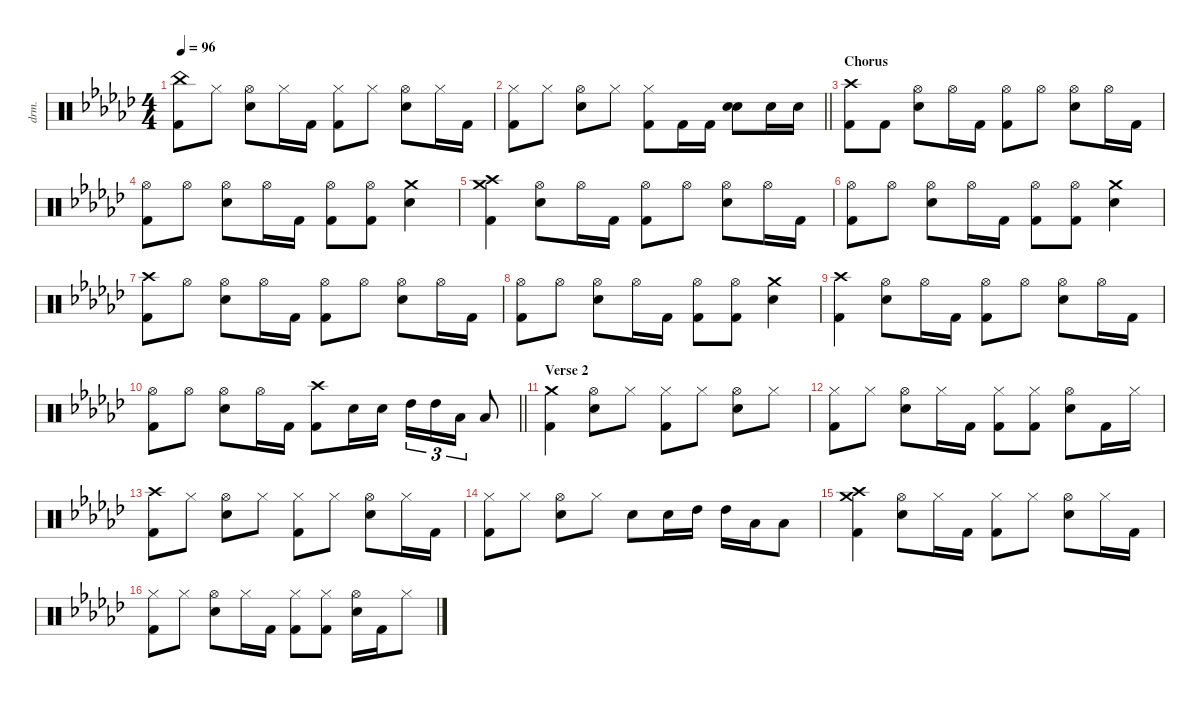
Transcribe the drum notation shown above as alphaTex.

\defaultSystemsLayout 4
\hideDynamics
\bracketExtendMode nobrackets
\otherSystemsTrackNameOrientation horizontal
\track ("Drums (Alex Van Halen)" "drm.") {instrument percussion}
\staff {score}
\articulation defaults
\ts (4 4)
\tempo 96
\clef neutral
\ks ebminor
("China (hit)"{acc forcenatural} "Kick (hit) 2"{acc forcenatural}).8{dy fff beam Down} "Hi-Hat (closed)"{acc forcenatural}.8{dy pp beam Down} ("Hi-Hat (open)"{acc forcenatural} "Snare (hit) 2"{acc forcenatural}).8{dy fff beam Down} "Hi-Hat (closed)"{acc forcenatural}.16{dy mp beam Down} "Kick (hit) 2"{acc forcenatural}.16{dy fff beam Down} ("Hi-Hat (closed)"{acc forcenatural} "Kick (hit) 2"{acc forcenatural}).8{beam Down} "Hi-Hat (closed)"{acc forcenatural}.8{dy mf beam Down} ("Hi-Hat (open)"{acc forcenatural} "Snare (hit) 2"{acc forcenatural}).8{dy fff beam Down} "Hi-Hat (closed)"{acc forcenatural}.16{dy mf beam Down} "Kick (hit) 2"{acc forcenatural}.16{dy fff beam Down} |
\barLineRight lightlight
("Hi-Hat (closed)"{acc forcenatural} "Kick (hit) 2"{acc forcenatural}).8{beam Down} "Hi-Hat (closed)"{acc forcenatural}.8{dy p beam Down} ("Hi-Hat (open)"{acc forcenatural} "Snare (hit) 2"{acc forcenatural}).8{dy fff beam Down} "Hi-Hat (closed)"{acc forcenatural}.8{dy mf beam Down} ("Hi-Hat (closed)"{acc forcenatural} "Kick (hit) 2"{acc forcenatural}).8{dy fff beam Down} "Kick (hit) 2"{acc forcenatural}.16{beam Down} "Kick (hit) 2"{acc forcenatural}.16{beam Down} ("Snare (hit) 2"{acc forcenatural} "Snare (hit) 2"{acc forcenatural}).8{beam Down} "Snare (hit) 2"{acc forcenatural}.16{dy mf beam Down} "Snare (hit) 2"{acc forcenatural}.16{dy fff beam Down} |
\section ("" "Chorus")
("Kick (hit) 2"{acc forcenatural} "Crash high (hit)"{acc forcenatural}).8{beam Down} "Kick (hit) 2"{acc forcenatural}.8{beam Down} ("Snare (hit) 2"{acc forcenatural} "Hi-Hat (open)"{acc forcenatural}).8{beam Down} "Hi-Hat (open)"{acc forcenatural}.16{dy f beam Down} "Kick (hit) 2"{acc forcenatural}.16{dy fff beam Down} ("Kick (hit) 2"{acc forcenatural} "Hi-Hat (open)"{acc forcenatural}).8{beam Down} "Hi-Hat (open)"{acc forcenatural}.8{dy mp beam Down} ("Hi-Hat (open)"{acc forcenatural} "Snare (hit) 2"{acc forcenatural}).8{dy fff beam Down} "Hi-Hat (open)"{acc forcenatural}.16{dy mf beam Down} "Kick (hit) 2"{acc forcenatural}.16{dy fff beam Down} |
("Kick (hit) 2"{acc forcenatural} "Hi-Hat (open)"{acc forcenatural}).8{beam Down} "Hi-Hat (open)"{acc forcenatural}.8{dy p beam Down} ("Snare (hit) 2"{acc forcenatural} "Hi-Hat (open)"{acc forcenatural}).8{dy fff beam Down} "Hi-Hat (open)"{acc forcenatural}.16{dy f beam Down} "Kick (hit) 2"{acc forcenatural}.16{dy fff beam Down} ("Kick (hit) 2"{acc forcenatural} "Hi-Hat (open)"{acc forcenatural}).8{beam Down} ("Hi-Hat (open)"{acc forcenatural} "Kick (hit) 2"{acc forcenatural}).8{dy p beam Down} ("Snare (hit) 2"{acc forcenatural} "Crash medium (hit)"{acc forcenatural}).4{dy fff beam Down} |
("Crash medium (hit)"{acc forcenatural} "Crash high (hit)"{acc forcenatural} "Kick (hit) 2"{acc forcenatural}).4{beam Down} ("Snare (hit) 2"{acc forcenatural} "Hi-Hat (open)"{acc forcenatural}).8{beam Down} "Hi-Hat (open)"{acc forcenatural}.16{dy f beam Down} "Kick (hit) 2"{acc forcenatural}.16{dy fff beam Down} ("Kick (hit) 2"{acc forcenatural} "Hi-Hat (open)"{acc forcenatural}).8{beam Down} "Hi-Hat (open)"{acc forcenatural}.8{dy mf beam Down} ("Snare (hit) 2"{acc forcenatural} "Hi-Hat (open)"{acc forcenatural}).8{dy fff beam Down} "Hi-Hat (open)"{acc forcenatural}.16{dy mp beam Down} "Kick (hit) 2"{acc forcenatural}.16{dy fff beam Down} |
("Hi-Hat (open)"{acc forcenatural} "Kick (hit) 2"{acc forcenatural}).8{dy ff beam Down} "Hi-Hat (open)"{acc forcenatural}.8{dy mp beam Down} ("Hi-Hat (open)"{acc forcenatural} "Snare (hit) 2"{acc forcenatural}).8{dy fff beam Down} "Hi-Hat (open)"{acc forcenatural}.16{dy mf beam Down} "Kick (hit) 2"{acc forcenatural}.16{dy fff beam Down} ("Hi-Hat (open)"{acc forcenatural} "Kick (hit) 2"{acc forcenatural}).8{dy f beam Down} ("Kick (hit) 2"{acc forcenatural} "Hi-Hat (open)"{acc forcenatural}).8{dy fff beam Down} ("Snare (hit) 2"{acc forcenatural} "Crash medium (hit)"{acc forcenatural}).4{beam Down} |
("Kick (hit) 2"{acc forcenatural} "Crash high (hit)"{acc forcenatural}).8{beam Down} "Hi-Hat (open)"{acc forcenatural}.8{beam Down} ("Hi-Hat (open)"{acc forcenatural} "Snare (hit) 2"{acc forcenatural}).8{beam Down} "Hi-Hat (open)"{acc forcenatural}.16{dy mp beam Down} "Kick (hit) 2"{acc forcenatural}.16{dy fff beam Down} ("Kick (hit) 2"{acc forcenatural} "Hi-Hat (open)"{acc forcenatural}).8{beam Down} "Hi-Hat (open)"{acc forcenatural}.8{dy mp beam Down} ("Hi-Hat (open)"{acc forcenatural} "Snare (hit) 2"{acc forcenatural}).8{dy fff beam Down} "Hi-Hat (open)"{acc forcenatural}.16{dy p beam Down} "Kick (hit) 2"{acc forcenatural}.16{dy fff beam Down} |
("Hi-Hat (open)"{acc forcenatural} "Kick (hit) 2"{acc forcenatural}).8{dy f beam Down} "Hi-Hat (open)"{acc forcenatural}.8{dy mp beam Down} ("Snare (hit) 2"{acc forcenatural} "Hi-Hat (open)"{acc forcenatural}).8{dy fff beam Down} "Hi-Hat (open)"{acc forcenatural}.16{dy mf beam Down} "Kick (hit) 2"{acc forcenatural}.16{dy fff beam Down} ("Kick (hit) 2"{acc forcenatural} "Hi-Hat (open)"{acc forcenatural}).8{beam Down} ("Hi-Hat (open)"{acc forcenatural} "Kick (hit) 2"{acc forcenatural}).8{dy p beam Down} ("Snare (hit) 2"{acc forcenatural} "Crash medium (hit)"{acc forcenatural}).4{dy fff beam Down} |
("Kick (hit) 2"{acc forcenatural} "Crash high (hit)"{acc forcenatural}).4{beam Down} ("Snare (hit) 2"{acc forcenatural} "Hi-Hat (open)"{acc forcenatural}).8{beam Down} "Hi-Hat (open)"{acc forcenatural}.16{dy p beam Down} "Kick (hit) 2"{acc forcenatural}.16{dy fff beam Down} ("Kick (hit) 2"{acc forcenatural} "Hi-Hat (open)"{acc forcenatural}).8{beam Down} "Hi-Hat (open)"{acc forcenatural}.8{dy pp beam Down} ("Snare (hit) 2"{acc forcenatural} "Hi-Hat (open)"{acc forcenatural}).8{dy fff beam Down} "Hi-Hat (open)"{acc forcenatural}.16{dy p beam Down} "Kick (hit) 2"{acc forcenatural}.16{dy fff beam Down} |
\barLineRight lightlight
("Hi-Hat (open)"{acc forcenatural} "Kick (hit) 2"{acc forcenatural}).8{beam Down} "Hi-Hat (open)"{acc forcenatural}.8{dy p beam Down} ("Hi-Hat (open)"{acc forcenatural} "Snare (hit) 2"{acc forcenatural}).8{dy fff beam Down} "Hi-Hat (open)"{acc forcenatural}.16{dy mf beam Down} "Kick (hit) 2"{acc forcenatural}.16{dy f beam Down} ("Crash high (hit)"{acc forcenatural} "Kick (hit) 2"{acc forcenatural}).8{dy fff beam Down} "Snare (hit) 2"{acc forcenatural}.16{dy f beam Down} "Snare (hit) 2"{acc forcenatural}.16{beam Down} "High Tom (hit)"{acc forcenatural}.16{tu (3 2) beam Down} "High Tom (hit)"{acc forcenatural}.16{tu (3 2) beam Down} "Low Tom (hit)"{acc forcenatural}.16{tu (3 2) beam Down} "Low Tom (hit)"{acc forcenatural}.8{beam Up} |
\section ("" "Verse 2")
("Crash medium (hit)"{acc forcenatural} "Kick (hit) 2"{acc forcenatural}).4{dy ff beam Down} ("Snare (hit) 2"{acc forcenatural} "Hi-Hat (open)"{acc forcenatural}).8{dy fff beam Down} "Hi-Hat (closed)"{acc forcenatural}.8{dy p beam Down} ("Kick (hit) 2"{acc forcenatural} "Hi-Hat (closed)"{acc forcenatural}).8{dy fff beam Down} "Hi-Hat (closed)"{acc forcenatural}.8{dy ppp beam Down} ("Snare (hit) 2"{acc forcenatural} "Hi-Hat (open)"{acc forcenatural}).8{dy fff beam Down} "Hi-Hat (closed)"{acc forcenatural}.8{dy mp beam Down} |
("Hi-Hat (closed)"{acc forcenatural} "Kick (hit) 2"{acc forcenatural}).8{dy fff beam Down} "Hi-Hat (closed)"{acc forcenatural}.8{dy p beam Down} ("Hi-Hat (open)"{acc forcenatural} "Snare (hit) 2"{acc forcenatural}).8{dy fff beam Down} "Hi-Hat (closed)"{acc forcenatural}.16{dy p beam Down} "Kick (hit) 2"{acc forcenatural}.16{dy fff beam Down} ("Hi-Hat (closed)"{acc forcenatural} "Kick (hit) 2"{acc forcenatural}).8{beam Down} ("Kick (hit) 2"{acc forcenatural} "Hi-Hat (closed)"{acc forcenatural}).8{beam Down} ("Hi-Hat (open)"{acc forcenatural} "Snare (hit) 2"{acc forcenatural}).8{beam Down} "Kick (hit) 2"{acc forcenatural}.16{beam Down} "Hi-Hat (closed)"{acc forcenatural}.16{dy p beam Down} |
("Crash high (hit)"{acc forcenatural} "Kick (hit) 2"{acc forcenatural}).8{dy f beam Down} "Hi-Hat (closed)"{acc forcenatural}.8{dy ppp beam Down} ("Hi-Hat (open)"{acc forcenatural} "Snare (hit) 2"{acc forcenatural}).8{dy fff beam Down} "Hi-Hat (closed)"{acc forcenatural}.8{dy p beam Down} ("Kick (hit) 2"{acc forcenatural} "Hi-Hat (closed)"{acc forcenatural}).8{dy fff beam Down} "Hi-Hat (closed)"{acc forcenatural}.8{dy ppp beam Down} ("Snare (hit) 2"{acc forcenatural} "Hi-Hat (open)"{acc forcenatural}).8{dy fff beam Down} "Hi-Hat (closed)"{acc forcenatural}.16{dy pp beam Down} "Kick (hit) 2"{acc forcenatural}.16{dy p beam Down} |
("Hi-Hat (closed)"{acc forcenatural} "Kick (hit) 2"{acc forcenatural}).8{dy fff beam Down} "Hi-Hat (closed)"{acc forcenatural}.8{dy p beam Down} ("Hi-Hat (open)"{acc forcenatural} "Snare (hit) 2"{acc forcenatural}).8{dy fff beam Down} "Hi-Hat (closed)"{acc forcenatural}.8{dy mp beam Down} "Snare (hit) 2"{acc forcenatural}.8{dy f beam Down} "Snare (hit) 2"{acc forcenatural}.16{beam Down} "High Tom (hit)"{acc forcenatural}.16{beam Down} "High Tom (hit)"{acc forcenatural}.16{beam Down} "Low Tom (hit)"{acc forcenatural}.16{beam Down} "Low Tom (hit)"{acc forcenatural}.8{beam Down} |
("Crash high (hit)"{acc forcenatural} "Crash medium (hit)"{acc forcenatural} "Kick (hit) 2"{acc forcenatural}).4{dy fff beam Down} ("Snare (hit) 2"{acc forcenatural} "Hi-Hat (open)"{acc forcenatural}).8{beam Down} "Hi-Hat (closed)"{acc forcenatural}.16{dy mp beam Down} "Kick (hit) 2"{acc forcenatural}.16{dy p beam Down} ("Hi-Hat (closed)"{acc forcenatural} "Kick (hit) 2"{acc forcenatural}).8{dy ff beam Down} "Hi-Hat (closed)"{acc forcenatural}.8{dy pp beam Down} ("Snare (hit) 2"{acc forcenatural} "Hi-Hat (open)"{acc forcenatural}).8{dy fff beam Down} "Hi-Hat (closed)"{acc forcenatural}.16{dy mp beam Down} "Kick (hit) 2"{acc forcenatural}.16{dy p beam Down} |
("Kick (hit) 2"{acc forcenatural} "Hi-Hat (closed)"{acc forcenatural}).8{dy fff beam Down} "Hi-Hat (closed)"{acc forcenatural}.8{dy p beam Down} ("Hi-Hat (open)"{acc forcenatural} "Snare (hit) 2"{acc forcenatural}).8{dy ff beam Down} "Hi-Hat (closed)"{acc forcenatural}.16{dy p beam Down} "Kick (hit) 2"{acc forcenatural}.16{beam Down} ("Hi-Hat (closed)"{acc forcenatural} "Kick (hit) 2"{acc forcenatural}).8{dy f beam Down} ("Kick (hit) 2"{acc forcenatural} "Hi-Hat (closed)"{acc forcenatural}).8{dy fff beam Down} ("Hi-Hat (open)"{acc forcenatural} "Snare (hit) 2"{acc forcenatural}).16{beam Down} "Kick (hit) 2"{acc forcenatural}.16{beam Down} "Hi-Hat (closed)"{acc forcenatural}.8{dy mp beam Down}
